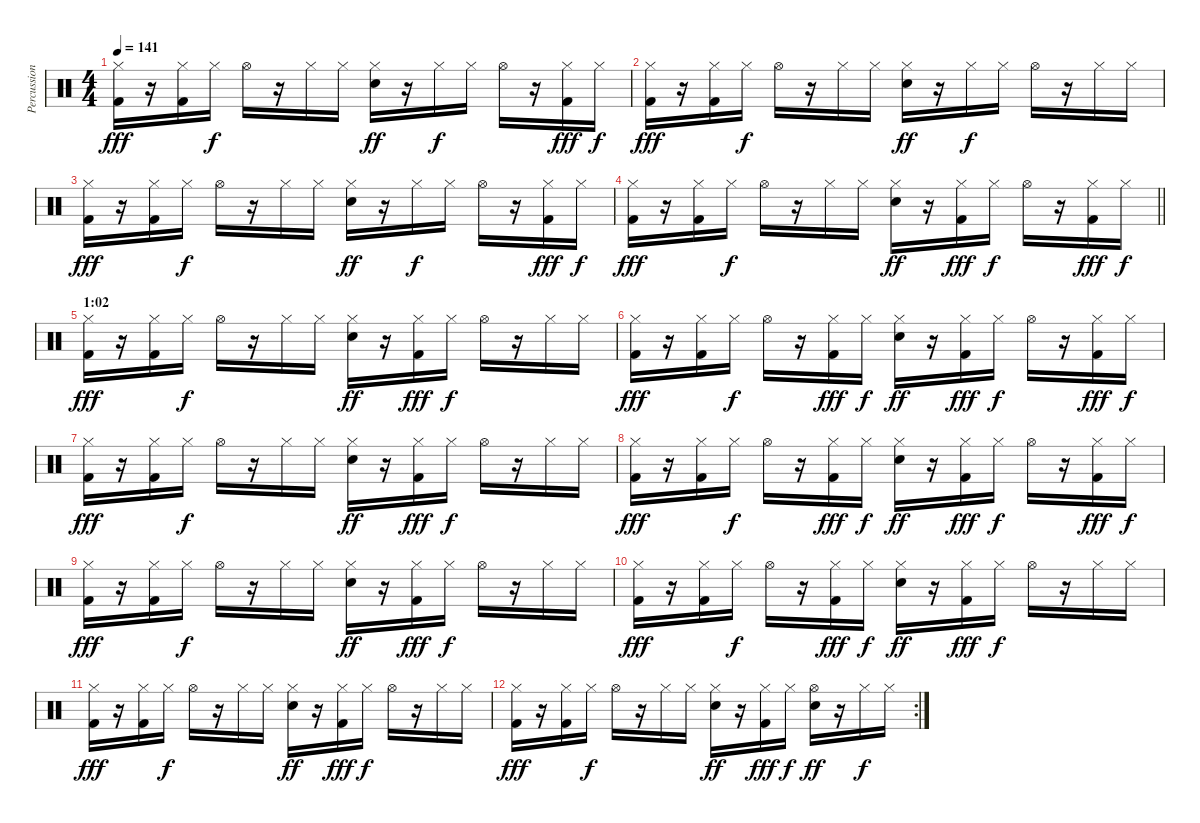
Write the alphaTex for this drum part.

\track ("Percussion" "Percussion") {instrument percussion}
\staff {score}
\articulation defaults
\ts (4 4)
\tempo 141
\clef neutral
\ks c
("Hi-Hat (closed)" "Kick (hit) 2").16{dy fff} r.16 ("Hi-Hat (closed)" "Kick (hit) 2").16 "Hi-Hat (closed)".16{dy f} "Hi-Hat (open)".16 r.16 "Hi-Hat (closed)".16 "Hi-Hat (closed)".16 ("Hi-Hat (closed)" "Snare (hit) 2").16{dy ff} r.16 "Hi-Hat (closed)".16{dy f} "Hi-Hat (closed)".16 "Hi-Hat (open)".16 r.16 ("Hi-Hat (closed)" "Kick (hit) 2").16{dy fff} "Hi-Hat (closed)".16{dy f} |
("Hi-Hat (closed)" "Kick (hit) 2").16{dy fff} r.16 ("Hi-Hat (closed)" "Kick (hit) 2").16 "Hi-Hat (closed)".16{dy f} "Hi-Hat (open)".16 r.16 "Hi-Hat (closed)".16 "Hi-Hat (closed)".16 ("Hi-Hat (closed)" "Snare (hit) 2").16{dy ff} r.16 "Hi-Hat (closed)".16{dy f} "Hi-Hat (closed)".16 "Hi-Hat (open)".16 r.16 "Hi-Hat (closed)".16 "Hi-Hat (closed)".16 |
("Hi-Hat (closed)" "Kick (hit) 2").16{dy fff} r.16 ("Hi-Hat (closed)" "Kick (hit) 2").16 "Hi-Hat (closed)".16{dy f} "Hi-Hat (open)".16 r.16 "Hi-Hat (closed)".16 "Hi-Hat (closed)".16 ("Hi-Hat (closed)" "Snare (hit) 2").16{dy ff} r.16 "Hi-Hat (closed)".16{dy f} "Hi-Hat (closed)".16 "Hi-Hat (open)".16 r.16 ("Hi-Hat (closed)" "Kick (hit) 2").16{dy fff} "Hi-Hat (closed)".16{dy f} |
\barLineRight lightlight
("Hi-Hat (closed)" "Kick (hit) 2").16{dy fff} r.16 ("Hi-Hat (closed)" "Kick (hit) 2").16 "Hi-Hat (closed)".16{dy f} "Hi-Hat (open)".16 r.16 "Hi-Hat (closed)".16 "Hi-Hat (closed)".16 ("Hi-Hat (closed)" "Snare (hit) 2").16{dy ff} r.16 ("Hi-Hat (closed)" "Kick (hit) 2").16{dy fff} "Hi-Hat (closed)".16{dy f} "Hi-Hat (open)".16 r.16 ("Hi-Hat (closed)" "Kick (hit) 2").16{dy fff} "Hi-Hat (closed)".16{dy f} |
\section ("" "1:02")
("Hi-Hat (closed)" "Kick (hit) 2").16{dy fff} r.16 ("Hi-Hat (closed)" "Kick (hit) 2").16 "Hi-Hat (closed)".16{dy f} "Hi-Hat (open)".16 r.16 "Hi-Hat (closed)".16 "Hi-Hat (closed)".16 ("Hi-Hat (closed)" "Snare (hit) 2").16{dy ff} r.16 ("Hi-Hat (closed)" "Kick (hit) 2").16{dy fff} "Hi-Hat (closed)".16{dy f} "Hi-Hat (open)".16 r.16 "Hi-Hat (closed)".16 "Hi-Hat (closed)".16 |
("Hi-Hat (closed)" "Kick (hit) 2").16{dy fff} r.16 ("Hi-Hat (closed)" "Kick (hit) 2").16 "Hi-Hat (closed)".16{dy f} "Hi-Hat (open)".16 r.16 ("Hi-Hat (closed)" "Kick (hit) 2").16{dy fff} "Hi-Hat (closed)".16{dy f} ("Hi-Hat (closed)" "Snare (hit) 2").16{dy ff} r.16 ("Hi-Hat (closed)" "Kick (hit) 2").16{dy fff} "Hi-Hat (closed)".16{dy f} "Hi-Hat (open)".16 r.16 ("Hi-Hat (closed)" "Kick (hit) 2").16{dy fff} "Hi-Hat (closed)".16{dy f} |
("Hi-Hat (closed)" "Kick (hit) 2").16{dy fff} r.16 ("Hi-Hat (closed)" "Kick (hit) 2").16 "Hi-Hat (closed)".16{dy f} "Hi-Hat (open)".16 r.16 "Hi-Hat (closed)".16 "Hi-Hat (closed)".16 ("Hi-Hat (closed)" "Snare (hit) 2").16{dy ff} r.16 ("Hi-Hat (closed)" "Kick (hit) 2").16{dy fff} "Hi-Hat (closed)".16{dy f} "Hi-Hat (open)".16 r.16 "Hi-Hat (closed)".16 "Hi-Hat (closed)".16 |
("Hi-Hat (closed)" "Kick (hit) 2").16{dy fff} r.16 ("Hi-Hat (closed)" "Kick (hit) 2").16 "Hi-Hat (closed)".16{dy f} "Hi-Hat (open)".16 r.16 ("Hi-Hat (closed)" "Kick (hit) 2").16{dy fff} "Hi-Hat (closed)".16{dy f} ("Hi-Hat (closed)" "Snare (hit) 2").16{dy ff} r.16 ("Hi-Hat (closed)" "Kick (hit) 2").16{dy fff} "Hi-Hat (closed)".16{dy f} "Hi-Hat (open)".16 r.16 ("Hi-Hat (closed)" "Kick (hit) 2").16{dy fff} "Hi-Hat (closed)".16{dy f} |
("Hi-Hat (closed)" "Kick (hit) 2").16{dy fff} r.16 ("Hi-Hat (closed)" "Kick (hit) 2").16 "Hi-Hat (closed)".16{dy f} "Hi-Hat (open)".16 r.16 "Hi-Hat (closed)".16 "Hi-Hat (closed)".16 ("Hi-Hat (closed)" "Snare (hit) 2").16{dy ff} r.16 ("Hi-Hat (closed)" "Kick (hit) 2").16{dy fff} "Hi-Hat (closed)".16{dy f} "Hi-Hat (open)".16 r.16 "Hi-Hat (closed)".16 "Hi-Hat (closed)".16 |
("Hi-Hat (closed)" "Kick (hit) 2").16{dy fff} r.16 ("Hi-Hat (closed)" "Kick (hit) 2").16 "Hi-Hat (closed)".16{dy f} "Hi-Hat (open)".16 r.16 ("Hi-Hat (closed)" "Kick (hit) 2").16{dy fff} "Hi-Hat (closed)".16{dy f} ("Hi-Hat (closed)" "Snare (hit) 2").16{dy ff} r.16 ("Hi-Hat (closed)" "Kick (hit) 2").16{dy fff} "Hi-Hat (closed)".16{dy f} "Hi-Hat (open)".16 r.16 "Hi-Hat (closed)".16 "Hi-Hat (closed)".16 |
("Hi-Hat (closed)" "Kick (hit) 2").16{dy fff} r.16 ("Hi-Hat (closed)" "Kick (hit) 2").16 "Hi-Hat (closed)".16{dy f} "Hi-Hat (open)".16 r.16 "Hi-Hat (closed)".16 "Hi-Hat (closed)".16 ("Hi-Hat (closed)" "Snare (hit) 2").16{dy ff} r.16 ("Hi-Hat (closed)" "Kick (hit) 2").16{dy fff} "Hi-Hat (closed)".16{dy f} "Hi-Hat (open)".16 r.16 "Hi-Hat (closed)".16 "Hi-Hat (closed)".16 |
\rc 2
("Hi-Hat (closed)" "Kick (hit) 2").16{dy fff} r.16 ("Hi-Hat (closed)" "Kick (hit) 2").16 "Hi-Hat (closed)".16{dy f} "Hi-Hat (open)".16 r.16 "Hi-Hat (closed)".16 "Hi-Hat (closed)".16 ("Hi-Hat (closed)" "Snare (hit) 2").16{dy ff} r.16 ("Hi-Hat (closed)" "Kick (hit) 2").16{dy fff} "Hi-Hat (closed)".16{dy f} ("Hi-Hat (open)" "Snare (hit) 2").16{dy ff} r.16 "Hi-Hat (closed)".16{dy f} "Hi-Hat (closed)".16
